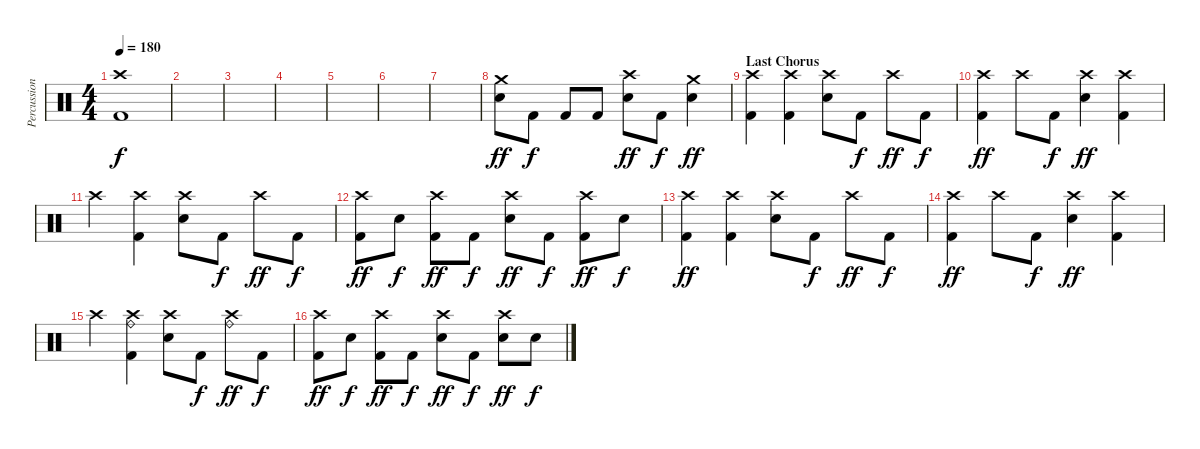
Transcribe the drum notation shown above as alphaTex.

\track ("Percussions" "Percussion") {instrument percussion}
\staff {score}
\articulation defaults
\ts (4 4)
\tempo 180
\clef neutral
\ks c
("Crash high (hit)" "Kick (hit) 2").1{dy f} |
|
|
|
|
|
|
("Crash medium (hit)" "Electric Snare (hit)").8{dy ff} "Kick (hit) 2".8{dy f} "Kick (hit) 2".8 "Kick (hit) 2".8 ("Crash high (hit)" "Electric Snare (hit)").8{dy ff} "Kick (hit) 2".8{dy f} ("Crash medium (hit)" "Electric Snare (hit)").4{dy ff} |
\section ("" "Last Chorus")
("Crash high (hit)" "Kick (hit) 2").4 ("Crash high (hit)" "Kick (hit) 2").4 ("Crash high (hit)" "Electric Snare (hit)").8 "Kick (hit) 2".8{dy f} "Crash high (hit)".8{dy ff} "Kick (hit) 2".8{dy f} |
("Crash high (hit)" "Kick (hit) 2").4{dy ff} "Crash high (hit)".8 "Kick (hit) 2".8{dy f} ("Crash high (hit)" "Electric Snare (hit)").4{dy ff} ("Crash high (hit)" "Kick (hit) 2").4 |
"Crash high (hit)".4 ("Crash high (hit)" "Kick (hit) 2").4 ("Crash high (hit)" "Electric Snare (hit)").8 "Kick (hit) 2".8{dy f} "Crash high (hit)".8{dy ff} "Kick (hit) 2".8{dy f} |
("Crash high (hit)" "Kick (hit) 2").8{dy ff} "Electric Snare (hit)".8{dy f} ("Crash high (hit)" "Kick (hit) 2").8{dy ff} "Kick (hit) 2".8{dy f} ("Crash high (hit)" "Electric Snare (hit)").8{dy ff} "Kick (hit) 2".8{dy f} ("Crash high (hit)" "Kick (hit) 2").8{dy ff} "Electric Snare (hit)".8{dy f} |
("Crash high (hit)" "Kick (hit) 2").4{dy ff} ("Crash high (hit)" "Kick (hit) 2").4 ("Crash high (hit)" "Electric Snare (hit)").8 "Kick (hit) 2".8{dy f} "Crash high (hit)".8{dy ff} "Kick (hit) 2".8{dy f} |
("Crash high (hit)" "Kick (hit) 2").4{dy ff} "Crash high (hit)".8 "Kick (hit) 2".8{dy f} ("Crash high (hit)" "Electric Snare (hit)").4{dy ff} ("Crash high (hit)" "Kick (hit) 2").4 |
"Crash high (hit)".4 ("Ride (bell)" "Crash high (hit)" "Kick (hit) 2").4 ("Crash high (hit)" "Electric Snare (hit)").8 "Kick (hit) 2".8{dy f} ("Ride (bell)" "Crash high (hit)").8{dy ff} "Kick (hit) 2".8{dy f} |
("Crash high (hit)" "Kick (hit) 2").8{dy ff} "Electric Snare (hit)".8{dy f} ("Crash high (hit)" "Kick (hit) 2").8{dy ff} "Kick (hit) 2".8{dy f} ("Crash high (hit)" "Electric Snare (hit)").8{dy ff} "Kick (hit) 2".8{dy f} ("Crash high (hit)" "Electric Snare (hit)").8{dy ff} "Electric Snare (hit)".8{dy f}
